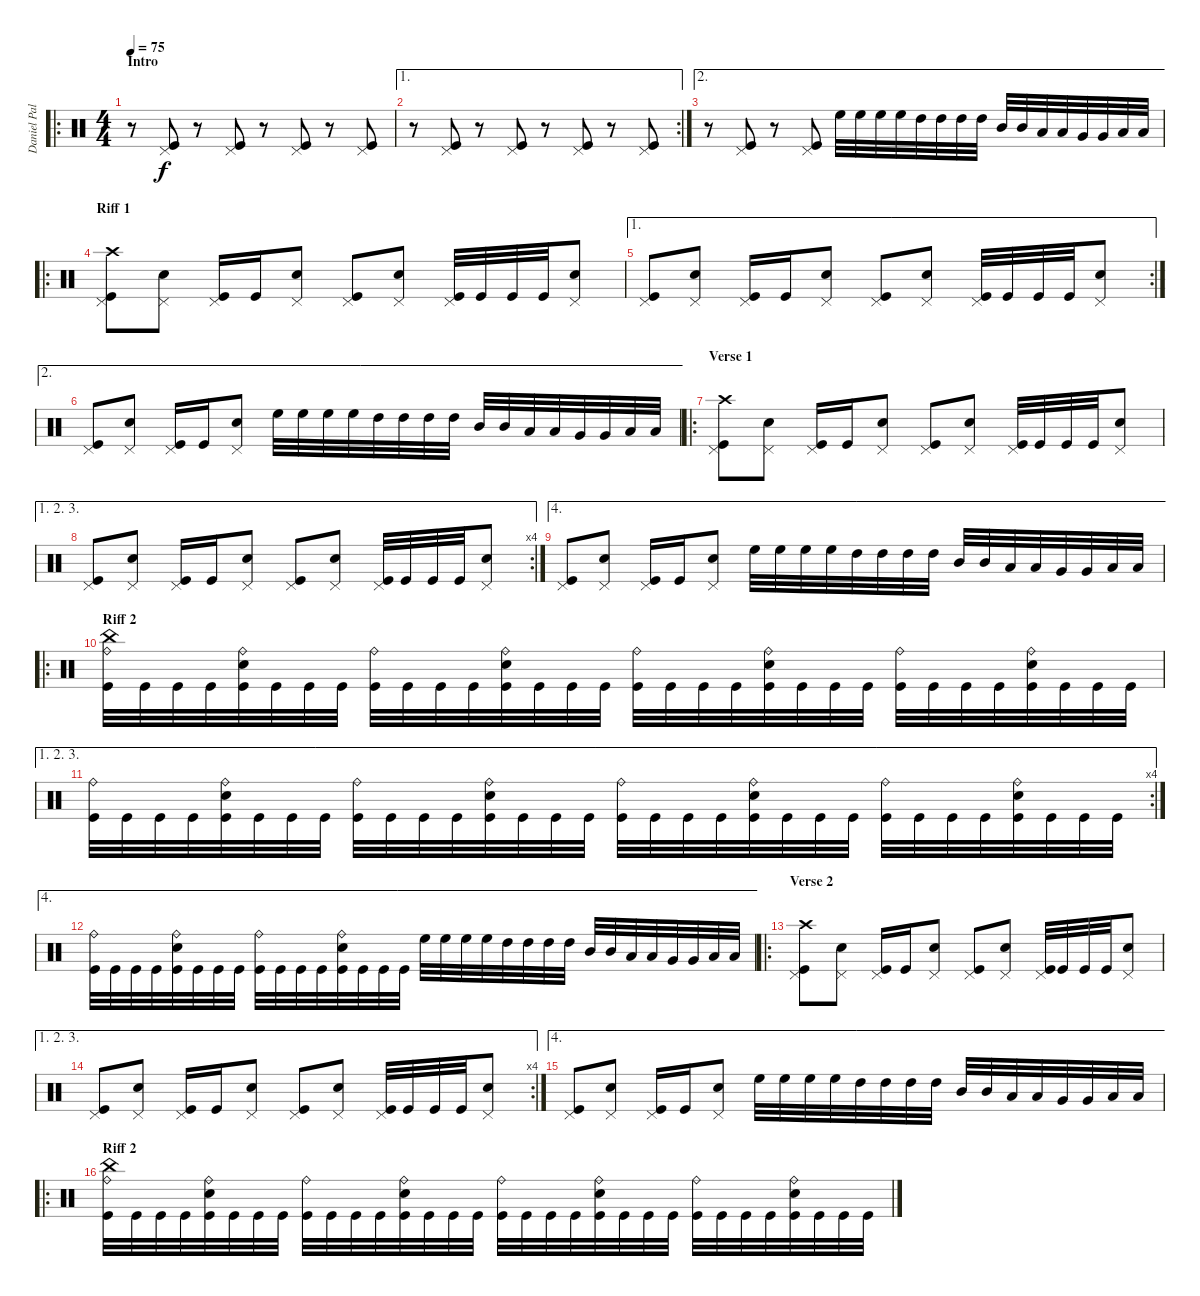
\track ("Daniel Pal" "Daniel Pal") {instrument percussion}
\staff {score}
\articulation defaults
\ro
\ts (4 4)
\section ("" "Intro")
\tempo 75
\clef neutral
\ks c
r.8{dy f} ("Pedal Hi-Hat (hit)" "Kick (hit)").8 r.8 ("Pedal Hi-Hat (hit)" "Kick (hit)").8 r.8 ("Pedal Hi-Hat (hit)" "Kick (hit)").8 r.8 ("Pedal Hi-Hat (hit)" "Kick (hit)").8 |
\ae 1
\rc 2
r.8 ("Pedal Hi-Hat (hit)" "Kick (hit)").8 r.8 ("Pedal Hi-Hat (hit)" "Kick (hit)").8 r.8 ("Pedal Hi-Hat (hit)" "Kick (hit)").8 r.8 ("Pedal Hi-Hat (hit)" "Kick (hit)").8 |
\ae 2
r.8 ("Pedal Hi-Hat (hit)" "Kick (hit)").8 r.8 ("Pedal Hi-Hat (hit)" "Kick (hit)").8 "High Floor Tom (hit)".32 "High Floor Tom (hit)".32 "High Floor Tom (hit)".32 "High Floor Tom (hit)".32 "High Tom (hit)".32 "High Tom (hit)".32 "High Tom (hit)".32 "High Tom (hit)".32 "Mid Tom (hit)".32 "Mid Tom (hit)".32 "Low Tom (hit)".32 "Low Tom (hit)".32 "Very Low Tom (hit)".32 "Very Low Tom (hit)".32 "Low Floor Tom (hit)".32 "Low Floor Tom (hit)".32 |
\ro
\section ("" "Riff 1")
("Crash high (hit)" "Pedal Hi-Hat (hit)" "Kick (hit)").8 ("Pedal Hi-Hat (hit)" "Electric Snare (hit)").8 ("Pedal Hi-Hat (hit)" "Kick (hit)").16 "Kick (hit)".16 ("Pedal Hi-Hat (hit)" "Electric Snare (hit)").8 ("Pedal Hi-Hat (hit)" "Kick (hit)").8 ("Pedal Hi-Hat (hit)" "Electric Snare (hit)").8 ("Pedal Hi-Hat (hit)" "Kick (hit)").32 "Kick (hit)".32 "Kick (hit)".32 "Kick (hit)".32 ("Pedal Hi-Hat (hit)" "Electric Snare (hit)").8 |
\ae 1
\rc 2
("Pedal Hi-Hat (hit)" "Kick (hit)").8 ("Pedal Hi-Hat (hit)" "Electric Snare (hit)").8 ("Pedal Hi-Hat (hit)" "Kick (hit)").16 "Kick (hit)".16 ("Pedal Hi-Hat (hit)" "Electric Snare (hit)").8 ("Pedal Hi-Hat (hit)" "Kick (hit)").8 ("Pedal Hi-Hat (hit)" "Electric Snare (hit)").8 ("Pedal Hi-Hat (hit)" "Kick (hit)").32 "Kick (hit)".32 "Kick (hit)".32 "Kick (hit)".32 ("Pedal Hi-Hat (hit)" "Electric Snare (hit)").8 |
\ae 2
("Pedal Hi-Hat (hit)" "Kick (hit)").8 ("Pedal Hi-Hat (hit)" "Electric Snare (hit)").8 ("Pedal Hi-Hat (hit)" "Kick (hit)").16 "Kick (hit)".16 ("Pedal Hi-Hat (hit)" "Electric Snare (hit)").8 "High Floor Tom (hit)".32 "High Floor Tom (hit)".32 "High Floor Tom (hit)".32 "High Floor Tom (hit)".32 "High Tom (hit)".32 "High Tom (hit)".32 "High Tom (hit)".32 "High Tom (hit)".32 "Mid Tom (hit)".32 "Mid Tom (hit)".32 "Low Tom (hit)".32 "Low Tom (hit)".32 "Very Low Tom (hit)".32 "Very Low Tom (hit)".32 "Low Floor Tom (hit)".32 "Low Floor Tom (hit)".32 |
\ro
\section ("" "Verse 1")
("Crash high (hit)" "Pedal Hi-Hat (hit)" "Kick (hit)").8 ("Pedal Hi-Hat (hit)" "Electric Snare (hit)").8 ("Pedal Hi-Hat (hit)" "Kick (hit)").16 "Kick (hit)".16 ("Pedal Hi-Hat (hit)" "Electric Snare (hit)").8 ("Pedal Hi-Hat (hit)" "Kick (hit)").8 ("Pedal Hi-Hat (hit)" "Electric Snare (hit)").8 ("Pedal Hi-Hat (hit)" "Kick (hit)").32 "Kick (hit)".32 "Kick (hit)".32 "Kick (hit)".32 ("Pedal Hi-Hat (hit)" "Electric Snare (hit)").8 |
\ae (1 2 3)
\rc 4
("Pedal Hi-Hat (hit)" "Kick (hit)").8 ("Pedal Hi-Hat (hit)" "Electric Snare (hit)").8 ("Pedal Hi-Hat (hit)" "Kick (hit)").16 "Kick (hit)".16 ("Pedal Hi-Hat (hit)" "Electric Snare (hit)").8 ("Pedal Hi-Hat (hit)" "Kick (hit)").8 ("Pedal Hi-Hat (hit)" "Electric Snare (hit)").8 ("Pedal Hi-Hat (hit)" "Kick (hit)").32 "Kick (hit)".32 "Kick (hit)".32 "Kick (hit)".32 ("Pedal Hi-Hat (hit)" "Electric Snare (hit)").8 |
\ae 4
("Pedal Hi-Hat (hit)" "Kick (hit)").8 ("Pedal Hi-Hat (hit)" "Electric Snare (hit)").8 ("Pedal Hi-Hat (hit)" "Kick (hit)").16 "Kick (hit)".16 ("Pedal Hi-Hat (hit)" "Electric Snare (hit)").8 "High Floor Tom (hit)".32 "High Floor Tom (hit)".32 "High Floor Tom (hit)".32 "High Floor Tom (hit)".32 "High Tom (hit)".32 "High Tom (hit)".32 "High Tom (hit)".32 "High Tom (hit)".32 "Mid Tom (hit)".32 "Mid Tom (hit)".32 "Low Tom (hit)".32 "Low Tom (hit)".32 "Very Low Tom (hit)".32 "Very Low Tom (hit)".32 "Low Floor Tom (hit)".32 "Low Floor Tom (hit)".32 |
\ro
\section ("" "Riff 2")
("China (hit)" "Ride (bell)" "Kick (hit)").32 "Kick (hit)".32 "Kick (hit)".32 "Kick (hit)".32 ("Ride (bell)" "Electric Snare (hit)" "Kick (hit)").32 "Kick (hit)".32 "Kick (hit)".32 "Kick (hit)".32 ("Ride (bell)" "Kick (hit)").32 "Kick (hit)".32 "Kick (hit)".32 "Kick (hit)".32 ("Ride (bell)" "Electric Snare (hit)" "Kick (hit)").32 "Kick (hit)".32 "Kick (hit)".32 "Kick (hit)".32 ("Ride (bell)" "Kick (hit)").32 "Kick (hit)".32 "Kick (hit)".32 "Kick (hit)".32 ("Ride (bell)" "Electric Snare (hit)" "Kick (hit)").32 "Kick (hit)".32 "Kick (hit)".32 "Kick (hit)".32 ("Ride (bell)" "Kick (hit)").32 "Kick (hit)".32 "Kick (hit)".32 "Kick (hit)".32 ("Ride (bell)" "Electric Snare (hit)" "Kick (hit)").32 "Kick (hit)".32 "Kick (hit)".32 "Kick (hit)".32 |
\ae (1 2 3)
\rc 4
("Ride (bell)" "Kick (hit)").32 "Kick (hit)".32 "Kick (hit)".32 "Kick (hit)".32 ("Ride (bell)" "Electric Snare (hit)" "Kick (hit)").32 "Kick (hit)".32 "Kick (hit)".32 "Kick (hit)".32 ("Ride (bell)" "Kick (hit)").32 "Kick (hit)".32 "Kick (hit)".32 "Kick (hit)".32 ("Ride (bell)" "Electric Snare (hit)" "Kick (hit)").32 "Kick (hit)".32 "Kick (hit)".32 "Kick (hit)".32 ("Ride (bell)" "Kick (hit)").32 "Kick (hit)".32 "Kick (hit)".32 "Kick (hit)".32 ("Ride (bell)" "Electric Snare (hit)" "Kick (hit)").32 "Kick (hit)".32 "Kick (hit)".32 "Kick (hit)".32 ("Ride (bell)" "Kick (hit)").32 "Kick (hit)".32 "Kick (hit)".32 "Kick (hit)".32 ("Ride (bell)" "Electric Snare (hit)" "Kick (hit)").32 "Kick (hit)".32 "Kick (hit)".32 "Kick (hit)".32 |
\ae 4
("Ride (bell)" "Kick (hit)").32 "Kick (hit)".32 "Kick (hit)".32 "Kick (hit)".32 ("Ride (bell)" "Electric Snare (hit)" "Kick (hit)").32 "Kick (hit)".32 "Kick (hit)".32 "Kick (hit)".32 ("Ride (bell)" "Kick (hit)").32 "Kick (hit)".32 "Kick (hit)".32 "Kick (hit)".32 ("Ride (bell)" "Electric Snare (hit)" "Kick (hit)").32 "Kick (hit)".32 "Kick (hit)".32 "Kick (hit)".32 "High Floor Tom (hit)".32 "High Floor Tom (hit)".32 "High Floor Tom (hit)".32 "High Floor Tom (hit)".32 "High Tom (hit)".32 "High Tom (hit)".32 "High Tom (hit)".32 "High Tom (hit)".32 "Mid Tom (hit)".32 "Mid Tom (hit)".32 "Low Tom (hit)".32 "Low Tom (hit)".32 "Very Low Tom (hit)".32 "Very Low Tom (hit)".32 "Low Floor Tom (hit)".32 "Low Floor Tom (hit)".32 |
\ro
\section ("" "Verse 2")
("Crash high (hit)" "Pedal Hi-Hat (hit)" "Kick (hit)").8 ("Pedal Hi-Hat (hit)" "Electric Snare (hit)").8 ("Pedal Hi-Hat (hit)" "Kick (hit)").16 "Kick (hit)".16 ("Pedal Hi-Hat (hit)" "Electric Snare (hit)").8 ("Pedal Hi-Hat (hit)" "Kick (hit)").8 ("Pedal Hi-Hat (hit)" "Electric Snare (hit)").8 ("Pedal Hi-Hat (hit)" "Kick (hit)").32 "Kick (hit)".32 "Kick (hit)".32 "Kick (hit)".32 ("Pedal Hi-Hat (hit)" "Electric Snare (hit)").8 |
\ae (1 2 3)
\rc 4
("Pedal Hi-Hat (hit)" "Kick (hit)").8 ("Pedal Hi-Hat (hit)" "Electric Snare (hit)").8 ("Pedal Hi-Hat (hit)" "Kick (hit)").16 "Kick (hit)".16 ("Pedal Hi-Hat (hit)" "Electric Snare (hit)").8 ("Pedal Hi-Hat (hit)" "Kick (hit)").8 ("Pedal Hi-Hat (hit)" "Electric Snare (hit)").8 ("Pedal Hi-Hat (hit)" "Kick (hit)").32 "Kick (hit)".32 "Kick (hit)".32 "Kick (hit)".32 ("Pedal Hi-Hat (hit)" "Electric Snare (hit)").8 |
\ae 4
("Pedal Hi-Hat (hit)" "Kick (hit)").8 ("Pedal Hi-Hat (hit)" "Electric Snare (hit)").8 ("Pedal Hi-Hat (hit)" "Kick (hit)").16 "Kick (hit)".16 ("Pedal Hi-Hat (hit)" "Electric Snare (hit)").8 "High Floor Tom (hit)".32 "High Floor Tom (hit)".32 "High Floor Tom (hit)".32 "High Floor Tom (hit)".32 "High Tom (hit)".32 "High Tom (hit)".32 "High Tom (hit)".32 "High Tom (hit)".32 "Mid Tom (hit)".32 "Mid Tom (hit)".32 "Low Tom (hit)".32 "Low Tom (hit)".32 "Very Low Tom (hit)".32 "Very Low Tom (hit)".32 "Low Floor Tom (hit)".32 "Low Floor Tom (hit)".32 |
\ro
\section ("" "Riff 2")
("China (hit)" "Ride (bell)" "Kick (hit)").32 "Kick (hit)".32 "Kick (hit)".32 "Kick (hit)".32 ("Ride (bell)" "Electric Snare (hit)" "Kick (hit)").32 "Kick (hit)".32 "Kick (hit)".32 "Kick (hit)".32 ("Ride (bell)" "Kick (hit)").32 "Kick (hit)".32 "Kick (hit)".32 "Kick (hit)".32 ("Ride (bell)" "Electric Snare (hit)" "Kick (hit)").32 "Kick (hit)".32 "Kick (hit)".32 "Kick (hit)".32 ("Ride (bell)" "Kick (hit)").32 "Kick (hit)".32 "Kick (hit)".32 "Kick (hit)".32 ("Ride (bell)" "Electric Snare (hit)" "Kick (hit)").32 "Kick (hit)".32 "Kick (hit)".32 "Kick (hit)".32 ("Ride (bell)" "Kick (hit)").32 "Kick (hit)".32 "Kick (hit)".32 "Kick (hit)".32 ("Ride (bell)" "Electric Snare (hit)" "Kick (hit)").32 "Kick (hit)".32 "Kick (hit)".32 "Kick (hit)".32
